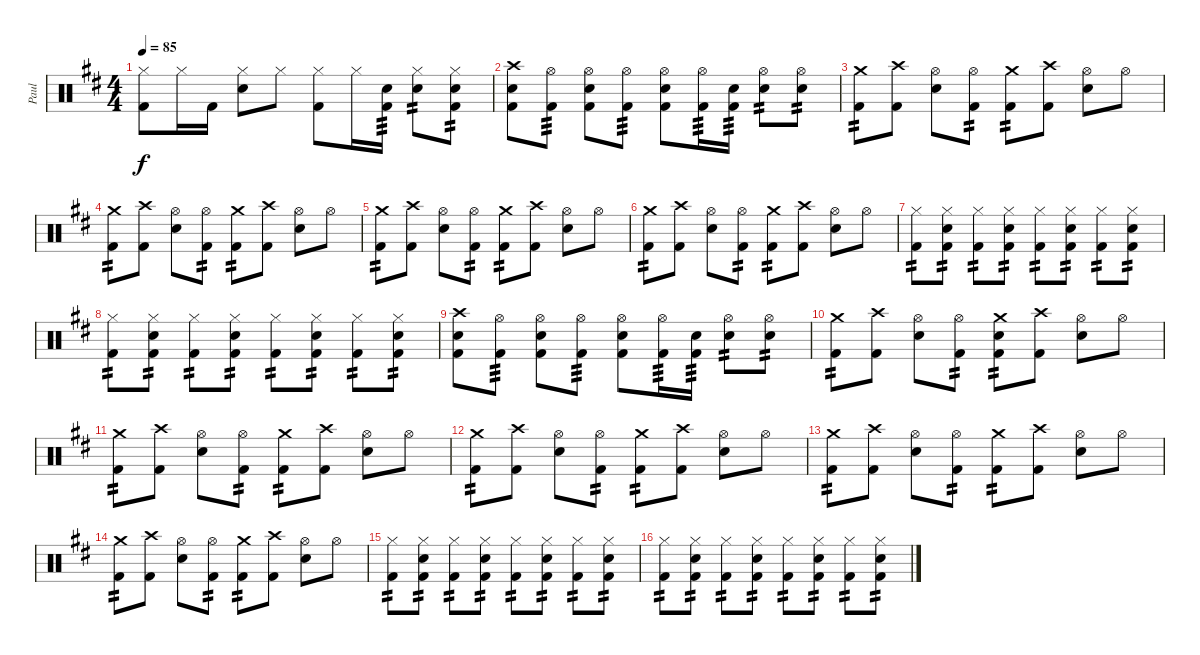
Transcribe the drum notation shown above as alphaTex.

\track ("Paul" "Paul") {instrument percussion}
\staff {score}
\articulation defaults
\ts (4 4)
\tempo 85
\clef neutral
\ks bminor
("Hi-Hat (closed)" "Kick (hit) 2").8{dy f} "Hi-Hat (closed)".16 "Kick (hit) 2".16 ("Hi-Hat (closed)" "Snare (hit) 2").8 "Hi-Hat (closed)".8 ("Hi-Hat (closed)" "Kick (hit) 2").8 "Hi-Hat (closed)".16 ("Snare (hit) 2" "Kick (hit) 2").16{tp 3} ("Hi-Hat (closed)" "Snare (hit) 2").8{tp 2} ("Hi-Hat (closed)" "Snare (hit) 2" "Kick (hit) 2").8{tp 2} |
("Crash high (hit)" "Snare (hit) 2" "Kick (hit) 2").8 ("Hi-Hat (open)" "Kick (hit) 2").8{tp 3} ("Hi-Hat (open)" "Snare (hit) 2" "Kick (hit) 2").8 ("Hi-Hat (open)" "Kick (hit) 2").8{tp 3} ("Hi-Hat (open)" "Snare (hit) 2" "Kick (hit) 2").8 ("Hi-Hat (open)" "Kick (hit) 2").16{tp 3} ("Snare (hit) 2" "Kick (hit) 2").16{tp 3} ("Hi-Hat (open)" "Snare (hit) 2").8{tp 2} ("Hi-Hat (open)" "Snare (hit) 2").8{tp 2} |
("Crash medium (hit)" "Kick (hit) 2").8{tp 2} ("Crash high (hit)" "Kick (hit) 2").8 ("Hi-Hat (open)" "Snare (hit) 2").8 ("Hi-Hat (open)" "Kick (hit) 2").8{tp 2} ("Crash medium (hit)" "Kick (hit) 2").8{tp 2} ("Crash high (hit)" "Kick (hit) 2").8 ("Hi-Hat (open)" "Snare (hit) 2").8 "Hi-Hat (open)".8 |
("Crash medium (hit)" "Kick (hit) 2").8{tp 2} ("Crash high (hit)" "Kick (hit) 2").8 ("Hi-Hat (open)" "Snare (hit) 2").8 ("Hi-Hat (open)" "Kick (hit) 2").8{tp 2} ("Crash medium (hit)" "Kick (hit) 2").8{tp 2} ("Crash high (hit)" "Kick (hit) 2").8 ("Hi-Hat (open)" "Snare (hit) 2").8 "Hi-Hat (open)".8 |
("Crash medium (hit)" "Kick (hit) 2").8{tp 2} ("Crash high (hit)" "Kick (hit) 2").8 ("Hi-Hat (open)" "Snare (hit) 2").8 ("Hi-Hat (open)" "Kick (hit) 2").8{tp 2} ("Crash medium (hit)" "Kick (hit) 2").8{tp 2} ("Crash high (hit)" "Kick (hit) 2").8 ("Hi-Hat (open)" "Snare (hit) 2").8 "Hi-Hat (open)".8 |
("Crash medium (hit)" "Kick (hit) 2").8{tp 2} ("Crash high (hit)" "Kick (hit) 2").8 ("Hi-Hat (open)" "Snare (hit) 2").8 ("Hi-Hat (open)" "Kick (hit) 2").8{tp 2} ("Crash medium (hit)" "Kick (hit) 2").8{tp 2} ("Crash high (hit)" "Kick (hit) 2").8 ("Hi-Hat (open)" "Snare (hit) 2").8 "Hi-Hat (open)".8 |
("Hi-Hat (closed)" "Kick (hit) 2").8{tp 2} ("Hi-Hat (closed)" "Snare (hit) 2" "Kick (hit) 2").8{tp 2} ("Hi-Hat (closed)" "Kick (hit) 2").8{tp 2} ("Hi-Hat (closed)" "Snare (hit) 2" "Kick (hit) 2").8{tp 2} ("Hi-Hat (closed)" "Kick (hit) 2").8{tp 2} ("Hi-Hat (closed)" "Snare (hit) 2" "Kick (hit) 2").8{tp 2} ("Hi-Hat (closed)" "Kick (hit) 2").8{tp 2} ("Hi-Hat (closed)" "Snare (hit) 2" "Kick (hit) 2").8{tp 2} |
("Hi-Hat (closed)" "Kick (hit) 2").8{tp 2} ("Hi-Hat (closed)" "Snare (hit) 2" "Kick (hit) 2").8{tp 2} ("Hi-Hat (closed)" "Kick (hit) 2").8{tp 2} ("Hi-Hat (closed)" "Snare (hit) 2" "Kick (hit) 2").8{tp 2} ("Hi-Hat (closed)" "Kick (hit) 2").8{tp 2} ("Hi-Hat (closed)" "Snare (hit) 2" "Kick (hit) 2").8{tp 2} ("Hi-Hat (closed)" "Kick (hit) 2").8{tp 2} ("Hi-Hat (closed)" "Snare (hit) 2" "Kick (hit) 2").8{tp 2} |
("Crash high (hit)" "Snare (hit) 2" "Kick (hit) 2").8 ("Hi-Hat (open)" "Kick (hit) 2").8{tp 3} ("Hi-Hat (open)" "Snare (hit) 2" "Kick (hit) 2").8 ("Hi-Hat (open)" "Kick (hit) 2").8{tp 3} ("Hi-Hat (open)" "Snare (hit) 2" "Kick (hit) 2").8 ("Hi-Hat (open)" "Kick (hit) 2").16{tp 3} ("Snare (hit) 2" "Kick (hit) 2").16{tp 3} ("Hi-Hat (open)" "Snare (hit) 2").8{tp 2} ("Hi-Hat (open)" "Snare (hit) 2").8{tp 2} |
("Crash medium (hit)" "Kick (hit) 2").8{tp 2} ("Crash high (hit)" "Kick (hit) 2").8 ("Hi-Hat (open)" "Snare (hit) 2").8 ("Hi-Hat (open)" "Kick (hit) 2").8{tp 2} ("Crash medium (hit)" "Snare (hit) 2" "Kick (hit) 2").8{tp 2} ("Crash high (hit)" "Kick (hit) 2").8 ("Hi-Hat (open)" "Snare (hit) 2").8 "Hi-Hat (open)".8 |
("Crash medium (hit)" "Kick (hit) 2").8{tp 2} ("Crash high (hit)" "Kick (hit) 2").8 ("Hi-Hat (open)" "Snare (hit) 2").8 ("Hi-Hat (open)" "Kick (hit) 2").8{tp 2} ("Crash medium (hit)" "Kick (hit) 2").8{tp 2} ("Crash high (hit)" "Kick (hit) 2").8 ("Hi-Hat (open)" "Snare (hit) 2").8 "Hi-Hat (open)".8 |
("Crash medium (hit)" "Kick (hit) 2").8{tp 2} ("Crash high (hit)" "Kick (hit) 2").8 ("Hi-Hat (open)" "Snare (hit) 2").8 ("Hi-Hat (open)" "Kick (hit) 2").8{tp 2} ("Crash medium (hit)" "Kick (hit) 2").8{tp 2} ("Crash high (hit)" "Kick (hit) 2").8 ("Hi-Hat (open)" "Snare (hit) 2").8 "Hi-Hat (open)".8 |
("Crash medium (hit)" "Kick (hit) 2").8{tp 2} ("Crash high (hit)" "Kick (hit) 2").8 ("Hi-Hat (open)" "Snare (hit) 2").8 ("Hi-Hat (open)" "Kick (hit) 2").8{tp 2} ("Crash medium (hit)" "Kick (hit) 2").8{tp 2} ("Crash high (hit)" "Kick (hit) 2").8 ("Hi-Hat (open)" "Snare (hit) 2").8 "Hi-Hat (open)".8 |
("Crash medium (hit)" "Kick (hit) 2").8{tp 2} ("Crash high (hit)" "Kick (hit) 2").8 ("Hi-Hat (open)" "Snare (hit) 2").8 ("Hi-Hat (open)" "Kick (hit) 2").8{tp 2} ("Crash medium (hit)" "Kick (hit) 2").8{tp 2} ("Crash high (hit)" "Kick (hit) 2").8 ("Hi-Hat (open)" "Snare (hit) 2").8 "Hi-Hat (open)".8 |
("Hi-Hat (closed)" "Kick (hit) 2").8{tp 2} ("Hi-Hat (closed)" "Snare (hit) 2" "Kick (hit) 2").8{tp 2} ("Hi-Hat (closed)" "Kick (hit) 2").8{tp 2} ("Hi-Hat (closed)" "Snare (hit) 2" "Kick (hit) 2").8{tp 2} ("Hi-Hat (closed)" "Kick (hit) 2").8{tp 2} ("Hi-Hat (closed)" "Snare (hit) 2" "Kick (hit) 2").8{tp 2} ("Hi-Hat (closed)" "Kick (hit) 2").8{tp 2} ("Hi-Hat (closed)" "Snare (hit) 2" "Kick (hit) 2").8{tp 2} |
("Hi-Hat (closed)" "Kick (hit) 2").8{tp 2} ("Hi-Hat (closed)" "Snare (hit) 2" "Kick (hit) 2").8{tp 2} ("Hi-Hat (closed)" "Kick (hit) 2").8{tp 2} ("Hi-Hat (closed)" "Snare (hit) 2" "Kick (hit) 2").8{tp 2} ("Hi-Hat (closed)" "Kick (hit) 2").8{tp 2} ("Hi-Hat (closed)" "Snare (hit) 2" "Kick (hit) 2").8{tp 2} ("Hi-Hat (closed)" "Kick (hit) 2").8{tp 2} ("Hi-Hat (closed)" "Snare (hit) 2" "Kick (hit) 2").8{tp 2}
